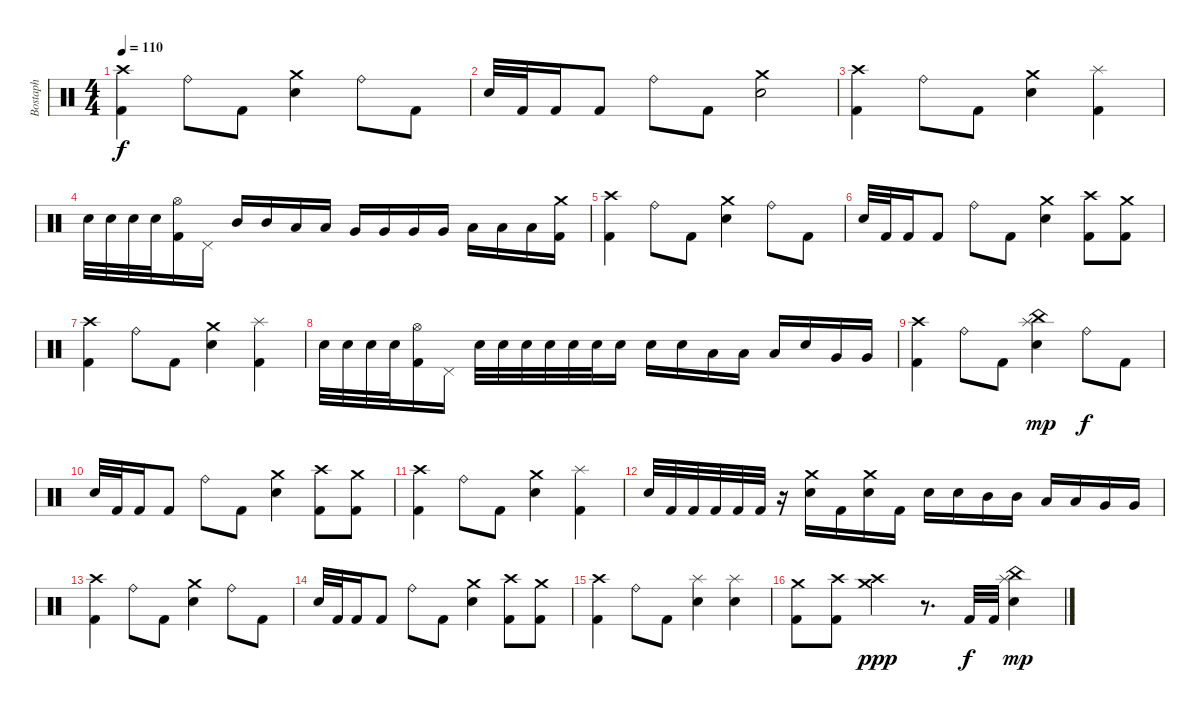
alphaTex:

\track ("Bostaph" "Bostaph") {instrument percussion}
\staff {score}
\articulation defaults
\ts (4 4)
\tempo 110
\clef neutral
\ks c
("Crash high (hit)" "Kick (hit) 2").4{dy f} "Ride (bell)".8 "Kick (hit) 2".8 ("Crash medium (hit)" "Electric Snare (hit)").4 "Ride (bell)".8 "Kick (hit) 2".8 |
"Electric Snare (hit)".32 "Kick (hit) 2".32 "Kick (hit) 2".16 "Kick (hit) 2".8 "Ride (bell)".8 "Kick (hit) 2".8 ("Crash medium (hit)" "Electric Snare (hit)").2 |
("Crash high (hit)" "Kick (hit) 2").4 "Ride (bell)".8 "Kick (hit) 2".8 ("Crash medium (hit)" "Electric Snare (hit)").4 ("Splash (hit)" "Kick (hit) 2").4 |
"Electric Snare (hit)".32 "Electric Snare (hit)".32 "Electric Snare (hit)".32 "Electric Snare (hit)".32 ("Hi-Hat (open)" "Kick (hit) 2").16 "Pedal Hi-Hat (hit)".16 "Mid Tom (hit)".16 "Mid Tom (hit)".16 "Low Tom (hit)".16 "Low Tom (hit)".16 "Very Low Tom (hit)".16 "Very Low Tom (hit)".16 "Very Low Tom (hit)".16 "Very Low Tom (hit)".16 "Low Floor Tom (hit)".16 "Low Floor Tom (hit)".16 "Low Floor Tom (hit)".16 ("Crash medium (hit)" "Kick (hit) 2").16 |
("Crash high (hit)" "Kick (hit) 2").4 "Ride (bell)".8 "Kick (hit) 2".8 ("Crash medium (hit)" "Electric Snare (hit)").4 "Ride (bell)".8 "Kick (hit) 2".8 |
"Electric Snare (hit)".32 "Kick (hit) 2".32 "Kick (hit) 2".16 "Kick (hit) 2".8 "Ride (bell)".8 "Kick (hit) 2".8 ("Crash medium (hit)" "Electric Snare (hit)").4 ("Crash high (hit)" "Kick (hit) 2").8 ("Crash medium (hit)" "Kick (hit) 2").8 |
("Crash high (hit)" "Kick (hit) 2").4 "Ride (bell)".8 "Kick (hit) 2".8 ("Crash medium (hit)" "Electric Snare (hit)").4 ("Splash (hit)" "Kick (hit) 2").4 |
"Electric Snare (hit)".32 "Electric Snare (hit)".32 "Electric Snare (hit)".32 "Electric Snare (hit)".32 ("Hi-Hat (open)" "Kick (hit) 2").16 "Pedal Hi-Hat (hit)".16 "Electric Snare (hit)".32 "Electric Snare (hit)".32 "Electric Snare (hit)".32 "Electric Snare (hit)".32 "Electric Snare (hit)".32 "Electric Snare (hit)".32 "Electric Snare (hit)".16 "Electric Snare (hit)".16 "Electric Snare (hit)".16 "Low Tom (hit)".16 "Low Tom (hit)".16 "Low Tom (hit)".16 "Electric Snare (hit)".16 "Very Low Tom (hit)".16 "Very Low Tom (hit)".16 |
("Crash high (hit)" "Kick (hit) 2").4 "Ride (bell)".8 "Kick (hit) 2".8 ("China (hit)" "Splash (hit)" "Electric Snare (hit)").4{dy mp} "Ride (bell)".8{dy f} "Kick (hit) 2".8 |
"Electric Snare (hit)".32 "Kick (hit) 2".32 "Kick (hit) 2".16 "Kick (hit) 2".8 "Ride (bell)".8 "Kick (hit) 2".8 ("Crash medium (hit)" "Electric Snare (hit)").4 ("Crash high (hit)" "Kick (hit) 2").8 ("Crash medium (hit)" "Kick (hit) 2").8 |
("Crash high (hit)" "Kick (hit) 2").4 "Ride (bell)".8 "Kick (hit) 2".8 ("Crash medium (hit)" "Electric Snare (hit)").4 ("Splash (hit)" "Kick (hit) 2").4 |
"Electric Snare (hit)".32 "Kick (hit) 2".32 "Kick (hit) 2".32 "Kick (hit) 2".32 "Kick (hit) 2".32 "Kick (hit) 2".32 r.16 ("Crash medium (hit)" "Electric Snare (hit)").16 "Kick (hit) 2".16 ("Crash medium (hit)" "Electric Snare (hit)").16 "Kick (hit) 2".16 "Electric Snare (hit)".16 "Electric Snare (hit)".16 "Mid Tom (hit)".16 "Mid Tom (hit)".16 "Low Tom (hit)".16 "Low Tom (hit)".16 "Very Low Tom (hit)".16 "Very Low Tom (hit)".16 |
("Crash high (hit)" "Kick (hit) 2").4 "Ride (bell)".8 "Kick (hit) 2".8 ("Crash medium (hit)" "Electric Snare (hit)").4 "Ride (bell)".8 "Kick (hit) 2".8 |
"Electric Snare (hit)".32 "Kick (hit) 2".32 "Kick (hit) 2".16 "Kick (hit) 2".8 "Ride (bell)".8 "Kick (hit) 2".8 ("Crash medium (hit)" "Electric Snare (hit)").4 ("Crash high (hit)" "Kick (hit) 2").8 ("Crash medium (hit)" "Kick (hit) 2").8 |
("Crash high (hit)" "Kick (hit) 2").4 "Ride (bell)".8 "Kick (hit) 2".8 ("Splash (hit)" "Electric Snare (hit)").4 ("Splash (hit)" "Electric Snare (hit)").4 |
("Crash medium (hit)" "Kick (hit) 2").8 ("Crash high (hit)" "Kick (hit) 2").8 ("Crash medium (hit)" "Crash high (hit)").4{dy ppp} r.8{d} "Kick (hit) 2".32{dy f} "Kick (hit) 2".32 ("China (hit)" "Splash (hit)" "Electric Snare (hit)").4{dy mp}
